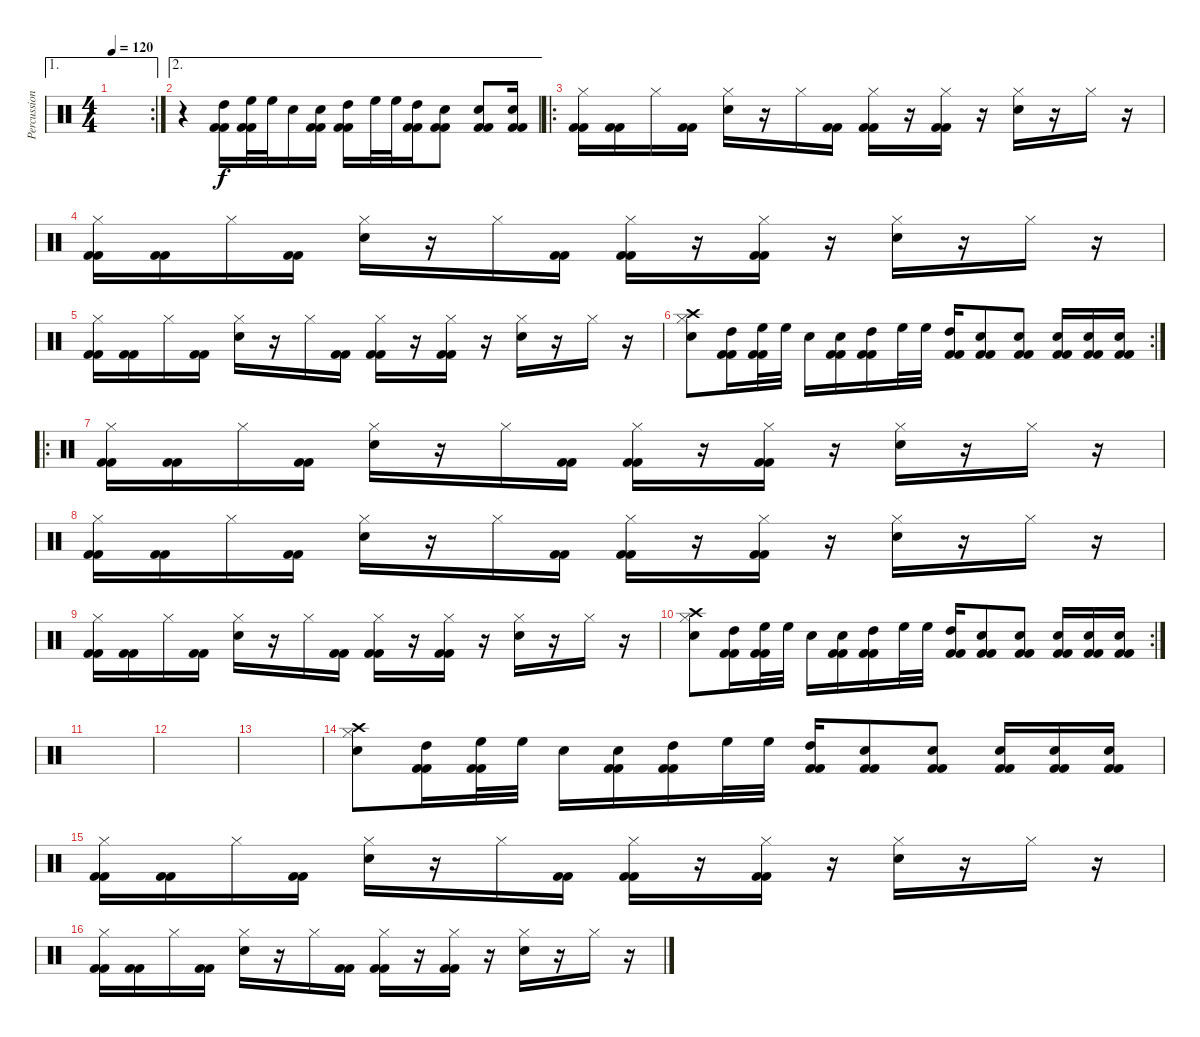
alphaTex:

\track ("Percussion" "Percussion") {instrument percussion}
\staff {score}
\articulation defaults
\ae 1
\rc 2
\ts (4 4)
\tempo 120
\clef neutral
\ks c
|
\ae 2
r.4 ("High Tom (hit)" "Kick (hit) 2" "Kick (hit) 2").16 ("High Floor Tom (hit)" "Kick (hit) 2" "Kick (hit) 2").32 "High Floor Tom (hit)".32 "Snare (hit) 2".16 ("Snare (hit) 2" "Kick (hit) 2" "Kick (hit) 2").16 ("High Tom (hit)" "Kick (hit) 2" "Kick (hit) 2").16 "High Floor Tom (hit)".32 "High Floor Tom (hit)".32 ("High Tom (hit)" "Kick (hit) 2" "Kick (hit) 2").16 ("Snare (hit) 2" "Kick (hit) 2" "Kick (hit) 2").8 ("Snare (hit) 2" "Kick (hit) 2" "Kick (hit) 2").8 ("Snare (hit) 2" "Kick (hit) 2" "Kick (hit) 2").16 |
\ro
("Hi-Hat (closed)" "Kick (hit) 2" "Kick (hit) 2").16 ("Kick (hit) 2" "Kick (hit) 2").16 "Hi-Hat (closed)".16 ("Kick (hit) 2" "Kick (hit) 2").16 ("Hi-Hat (closed)" "Snare (hit) 2").16 r.16 "Hi-Hat (closed)".16 ("Kick (hit) 2" "Kick (hit) 2").16 ("Hi-Hat (closed)" "Kick (hit) 2" "Kick (hit) 2").16 r.16 ("Hi-Hat (closed)" "Kick (hit) 2" "Kick (hit) 2").16 r.16 ("Hi-Hat (closed)" "Snare (hit) 2").16 r.16 "Hi-Hat (closed)".16 r.16 |
("Hi-Hat (closed)" "Kick (hit) 2" "Kick (hit) 2").16 ("Kick (hit) 2" "Kick (hit) 2").16 "Hi-Hat (closed)".16 ("Kick (hit) 2" "Kick (hit) 2").16 ("Hi-Hat (closed)" "Snare (hit) 2").16 r.16 "Hi-Hat (closed)".16 ("Kick (hit) 2" "Kick (hit) 2").16 ("Hi-Hat (closed)" "Kick (hit) 2" "Kick (hit) 2").16 r.16 ("Hi-Hat (closed)" "Kick (hit) 2" "Kick (hit) 2").16 r.16 ("Hi-Hat (closed)" "Snare (hit) 2").16 r.16 "Hi-Hat (closed)".16 r.16 |
("Hi-Hat (closed)" "Kick (hit) 2" "Kick (hit) 2").16 ("Kick (hit) 2" "Kick (hit) 2").16 "Hi-Hat (closed)".16 ("Kick (hit) 2" "Kick (hit) 2").16 ("Hi-Hat (closed)" "Snare (hit) 2").16 r.16 "Hi-Hat (closed)".16 ("Kick (hit) 2" "Kick (hit) 2").16 ("Hi-Hat (closed)" "Kick (hit) 2" "Kick (hit) 2").16 r.16 ("Hi-Hat (closed)" "Kick (hit) 2" "Kick (hit) 2").16 r.16 ("Hi-Hat (closed)" "Snare (hit) 2").16 r.16 "Hi-Hat (closed)".16 r.16 |
\rc 2
("Hi-Hat (closed)" "Crash high (hit)" "Snare (hit) 2").8 ("High Tom (hit)" "Kick (hit) 2" "Kick (hit) 2").16 ("High Floor Tom (hit)" "Kick (hit) 2" "Kick (hit) 2").32 "High Floor Tom (hit)".32 "Snare (hit) 2".16 ("Snare (hit) 2" "Kick (hit) 2" "Kick (hit) 2").16 ("High Tom (hit)" "Kick (hit) 2" "Kick (hit) 2").16 "High Floor Tom (hit)".32 "High Floor Tom (hit)".32 ("High Tom (hit)" "Kick (hit) 2" "Kick (hit) 2").16 ("Snare (hit) 2" "Kick (hit) 2" "Kick (hit) 2").8 ("Snare (hit) 2" "Kick (hit) 2" "Kick (hit) 2").8 ("Snare (hit) 2" "Kick (hit) 2" "Kick (hit) 2").16 ("Snare (hit) 2" "Kick (hit) 2" "Kick (hit) 2").16 ("Snare (hit) 2" "Kick (hit) 2" "Kick (hit) 2").16 |
\ro
("Hi-Hat (closed)" "Kick (hit) 2" "Kick (hit) 2").16 ("Kick (hit) 2" "Kick (hit) 2").16 "Hi-Hat (closed)".16 ("Kick (hit) 2" "Kick (hit) 2").16 ("Hi-Hat (closed)" "Snare (hit) 2").16 r.16 "Hi-Hat (closed)".16 ("Kick (hit) 2" "Kick (hit) 2").16 ("Hi-Hat (closed)" "Kick (hit) 2" "Kick (hit) 2").16 r.16 ("Hi-Hat (closed)" "Kick (hit) 2" "Kick (hit) 2").16 r.16 ("Hi-Hat (closed)" "Snare (hit) 2").16 r.16 "Hi-Hat (closed)".16 r.16 |
("Hi-Hat (closed)" "Kick (hit) 2" "Kick (hit) 2").16 ("Kick (hit) 2" "Kick (hit) 2").16 "Hi-Hat (closed)".16 ("Kick (hit) 2" "Kick (hit) 2").16 ("Hi-Hat (closed)" "Snare (hit) 2").16 r.16 "Hi-Hat (closed)".16 ("Kick (hit) 2" "Kick (hit) 2").16 ("Hi-Hat (closed)" "Kick (hit) 2" "Kick (hit) 2").16 r.16 ("Hi-Hat (closed)" "Kick (hit) 2" "Kick (hit) 2").16 r.16 ("Hi-Hat (closed)" "Snare (hit) 2").16 r.16 "Hi-Hat (closed)".16 r.16 |
("Hi-Hat (closed)" "Kick (hit) 2" "Kick (hit) 2").16 ("Kick (hit) 2" "Kick (hit) 2").16 "Hi-Hat (closed)".16 ("Kick (hit) 2" "Kick (hit) 2").16 ("Hi-Hat (closed)" "Snare (hit) 2").16 r.16 "Hi-Hat (closed)".16 ("Kick (hit) 2" "Kick (hit) 2").16 ("Hi-Hat (closed)" "Kick (hit) 2" "Kick (hit) 2").16 r.16 ("Hi-Hat (closed)" "Kick (hit) 2" "Kick (hit) 2").16 r.16 ("Hi-Hat (closed)" "Snare (hit) 2").16 r.16 "Hi-Hat (closed)".16 r.16 |
\rc 2
("Hi-Hat (closed)" "Crash high (hit)" "Snare (hit) 2").8 ("High Tom (hit)" "Kick (hit) 2" "Kick (hit) 2").16 ("High Floor Tom (hit)" "Kick (hit) 2" "Kick (hit) 2").32 "High Floor Tom (hit)".32 "Snare (hit) 2".16 ("Snare (hit) 2" "Kick (hit) 2" "Kick (hit) 2").16 ("High Tom (hit)" "Kick (hit) 2" "Kick (hit) 2").16 "High Floor Tom (hit)".32 "High Floor Tom (hit)".32 ("High Tom (hit)" "Kick (hit) 2" "Kick (hit) 2").16 ("Snare (hit) 2" "Kick (hit) 2" "Kick (hit) 2").8 ("Snare (hit) 2" "Kick (hit) 2" "Kick (hit) 2").8 ("Snare (hit) 2" "Kick (hit) 2" "Kick (hit) 2").16 ("Snare (hit) 2" "Kick (hit) 2" "Kick (hit) 2").16 ("Snare (hit) 2" "Kick (hit) 2" "Kick (hit) 2").16 |
|
|
|
("Hi-Hat (closed)" "Crash high (hit)" "Snare (hit) 2").8 ("High Tom (hit)" "Kick (hit) 2" "Kick (hit) 2").16 ("High Floor Tom (hit)" "Kick (hit) 2" "Kick (hit) 2").32 "High Floor Tom (hit)".32 "Snare (hit) 2".16 ("Snare (hit) 2" "Kick (hit) 2" "Kick (hit) 2").16 ("High Tom (hit)" "Kick (hit) 2" "Kick (hit) 2").16 "High Floor Tom (hit)".32 "High Floor Tom (hit)".32 ("High Tom (hit)" "Kick (hit) 2" "Kick (hit) 2").16 ("Snare (hit) 2" "Kick (hit) 2" "Kick (hit) 2").8 ("Snare (hit) 2" "Kick (hit) 2" "Kick (hit) 2").8 ("Snare (hit) 2" "Kick (hit) 2" "Kick (hit) 2").16 ("Snare (hit) 2" "Kick (hit) 2" "Kick (hit) 2").16 ("Snare (hit) 2" "Kick (hit) 2" "Kick (hit) 2").16 |
("Hi-Hat (closed)" "Kick (hit) 2" "Kick (hit) 2").16 ("Kick (hit) 2" "Kick (hit) 2").16 "Hi-Hat (closed)".16 ("Kick (hit) 2" "Kick (hit) 2").16 ("Hi-Hat (closed)" "Snare (hit) 2").16 r.16 "Hi-Hat (closed)".16 ("Kick (hit) 2" "Kick (hit) 2").16 ("Hi-Hat (closed)" "Kick (hit) 2" "Kick (hit) 2").16 r.16 ("Hi-Hat (closed)" "Kick (hit) 2" "Kick (hit) 2").16 r.16 ("Hi-Hat (closed)" "Snare (hit) 2").16 r.16 "Hi-Hat (closed)".16 r.16 |
("Hi-Hat (closed)" "Kick (hit) 2" "Kick (hit) 2").16 ("Kick (hit) 2" "Kick (hit) 2").16 "Hi-Hat (closed)".16 ("Kick (hit) 2" "Kick (hit) 2").16 ("Hi-Hat (closed)" "Snare (hit) 2").16 r.16 "Hi-Hat (closed)".16 ("Kick (hit) 2" "Kick (hit) 2").16 ("Hi-Hat (closed)" "Kick (hit) 2" "Kick (hit) 2").16 r.16 ("Hi-Hat (closed)" "Kick (hit) 2" "Kick (hit) 2").16 r.16 ("Hi-Hat (closed)" "Snare (hit) 2").16 r.16 "Hi-Hat (closed)".16 r.16
